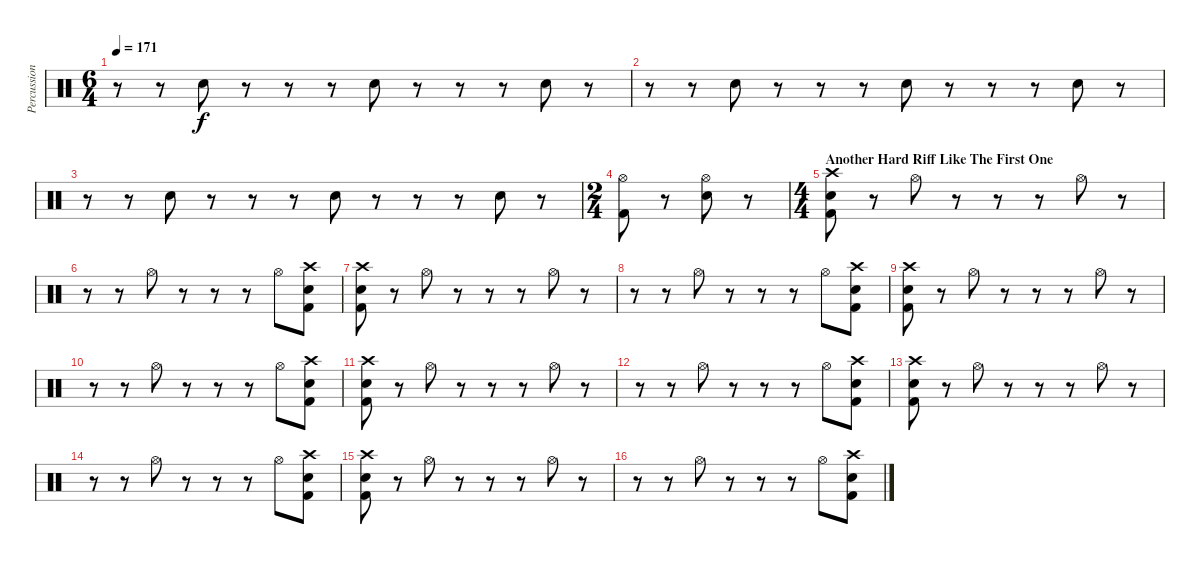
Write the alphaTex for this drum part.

\track ("Percussions" "Percussion") {instrument percussion}
\staff {score}
\articulation defaults
\ts (6 4)
\tempo 171
\clef neutral
\ks c
r.8{dy f} r.8 "Electric Snare (hit)".8 r.8 r.8 r.8 "Electric Snare (hit)".8 r.8 r.8 r.8 "Electric Snare (hit)".8 r.8 |
r.8 r.8 "Electric Snare (hit)".8 r.8 r.8 r.8 "Electric Snare (hit)".8 r.8 r.8 r.8 "Electric Snare (hit)".8 r.8 |
r.8 r.8 "Electric Snare (hit)".8 r.8 r.8 r.8 "Electric Snare (hit)".8 r.8 r.8 r.8 "Electric Snare (hit)".8 r.8 |
\ts (2 4)
("Hi-Hat (open)" "Kick (hit) 2").8 r.8 ("Hi-Hat (open)" "Electric Snare (hit)").8 r.8 |
\ts (4 4)
\section ("" "Another Hard Riff Like The First One")
("Crash high (hit)" "Electric Snare (hit)" "Kick (hit) 2").8 r.8 "Hi-Hat (open)".8 r.8 r.8 r.8 "Hi-Hat (open)".8 r.8 |
r.8 r.8 "Hi-Hat (open)".8 r.8 r.8 r.8 "Hi-Hat (open)".8 ("Crash high (hit)" "Electric Snare (hit)" "Kick (hit) 2").8 |
("Crash high (hit)" "Electric Snare (hit)" "Kick (hit) 2").8 r.8 "Hi-Hat (open)".8 r.8 r.8 r.8 "Hi-Hat (open)".8 r.8 |
r.8 r.8 "Hi-Hat (open)".8 r.8 r.8 r.8 "Hi-Hat (open)".8 ("Crash high (hit)" "Electric Snare (hit)" "Kick (hit) 2").8 |
("Crash high (hit)" "Electric Snare (hit)" "Kick (hit) 2").8 r.8 "Hi-Hat (open)".8 r.8 r.8 r.8 "Hi-Hat (open)".8 r.8 |
r.8 r.8 "Hi-Hat (open)".8 r.8 r.8 r.8 "Hi-Hat (open)".8 ("Crash high (hit)" "Electric Snare (hit)" "Kick (hit) 2").8 |
("Crash high (hit)" "Electric Snare (hit)" "Kick (hit) 2").8 r.8 "Hi-Hat (open)".8 r.8 r.8 r.8 "Hi-Hat (open)".8 r.8 |
r.8 r.8 "Hi-Hat (open)".8 r.8 r.8 r.8 "Hi-Hat (open)".8 ("Crash high (hit)" "Electric Snare (hit)" "Kick (hit) 2").8 |
("Crash high (hit)" "Electric Snare (hit)" "Kick (hit) 2").8 r.8 "Hi-Hat (open)".8 r.8 r.8 r.8 "Hi-Hat (open)".8 r.8 |
r.8 r.8 "Hi-Hat (open)".8 r.8 r.8 r.8 "Hi-Hat (open)".8 ("Crash high (hit)" "Electric Snare (hit)" "Kick (hit) 2").8 |
("Crash high (hit)" "Electric Snare (hit)" "Kick (hit) 2").8 r.8 "Hi-Hat (open)".8 r.8 r.8 r.8 "Hi-Hat (open)".8 r.8 |
r.8 r.8 "Hi-Hat (open)".8 r.8 r.8 r.8 "Hi-Hat (open)".8 ("Crash high (hit)" "Electric Snare (hit)" "Kick (hit) 2").8
